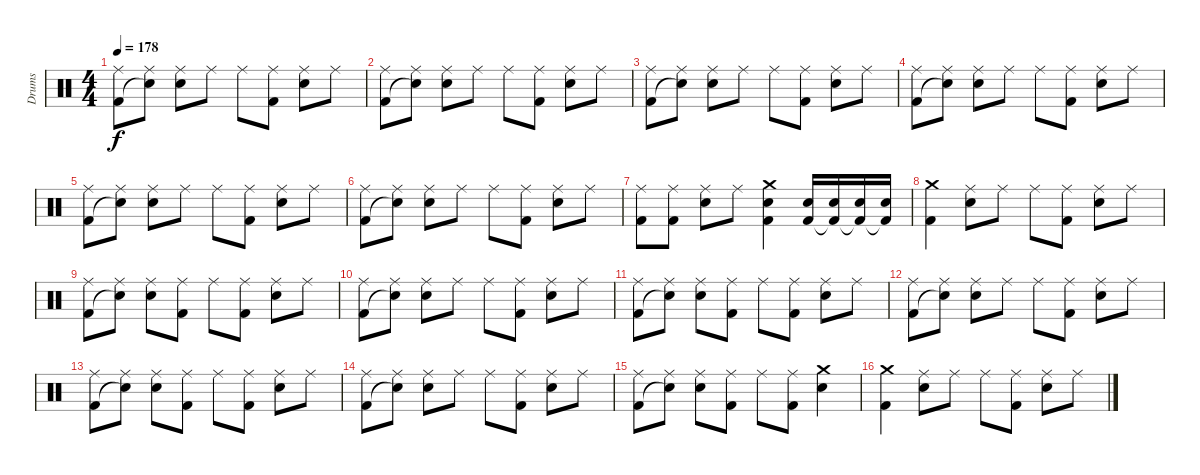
\track ("Drums" "Drums") {instrument percussion}
\staff {score}
\articulation defaults
\ts (4 4)
\tempo 178
\clef neutral
\ks c
("Ride (middle)" "Kick (hit) 2").8{dy f} ("Ride (middle)" "Snare (hit)"{t}).8 ("Ride (middle)" "Electric Snare (hit)").8 "Ride (middle)".8 "Ride (middle)".8 ("Ride (middle)" "Kick (hit) 2").8 ("Ride (middle)" "Electric Snare (hit)").8 "Ride (middle)".8 |
("Ride (middle)" "Kick (hit) 2").8 ("Ride (middle)" "Snare (hit)"{t}).8 ("Ride (middle)" "Electric Snare (hit)").8 "Ride (middle)".8 "Ride (middle)".8 ("Ride (middle)" "Kick (hit) 2").8 ("Ride (middle)" "Electric Snare (hit)").8 "Ride (middle)".8 |
("Ride (middle)" "Kick (hit) 2").8 ("Ride (middle)" "Snare (hit)"{t}).8 ("Ride (middle)" "Electric Snare (hit)").8 "Ride (middle)".8 "Ride (middle)".8 ("Ride (middle)" "Kick (hit) 2").8 ("Ride (middle)" "Electric Snare (hit)").8 "Ride (middle)".8 |
("Ride (middle)" "Kick (hit) 2").8 ("Ride (middle)" "Snare (hit)"{t}).8 ("Ride (middle)" "Electric Snare (hit)").8 "Ride (middle)".8 "Ride (middle)".8 ("Ride (middle)" "Kick (hit) 2").8 ("Ride (middle)" "Electric Snare (hit)").8 "Ride (middle)".8 |
("Ride (middle)" "Kick (hit) 2").8 ("Ride (middle)" "Snare (hit)"{t}).8 ("Ride (middle)" "Electric Snare (hit)").8 "Ride (middle)".8 "Ride (middle)".8 ("Ride (middle)" "Kick (hit) 2").8 ("Ride (middle)" "Electric Snare (hit)").8 "Ride (middle)".8 |
("Ride (middle)" "Kick (hit) 2").8 ("Ride (middle)" "Snare (hit)"{t}).8 ("Ride (middle)" "Electric Snare (hit)").8 "Ride (middle)".8 "Ride (middle)".8 ("Ride (middle)" "Kick (hit) 2").8 ("Ride (middle)" "Electric Snare (hit)").8 "Ride (middle)".8 |
("Ride (middle)" "Kick (hit) 2").8 ("Ride (middle)" "Kick (hit) 2").8 ("Ride (middle)" "Electric Snare (hit)").8 "Ride (middle)".8 ("Crash medium (hit)" "Electric Snare (hit)" "Kick (hit) 2").4 ("Electric Snare (hit)" "Kick (hit) 2").16 ("Electric Snare (hit)" "Kick (hit) 2"{t}).16 ("Electric Snare (hit)" "Kick (hit) 2"{t}).16 ("Electric Snare (hit)" "Kick (hit) 2"{t}).16 |
("Crash medium (hit)" "Kick (hit) 2").4 ("Ride (middle)" "Electric Snare (hit)").8 "Ride (middle)".8 "Ride (middle)".8 ("Ride (middle)" "Kick (hit) 2").8 ("Ride (middle)" "Electric Snare (hit)").8 "Ride (middle)".8 |
("Ride (middle)" "Kick (hit) 2").8 ("Ride (middle)" "Snare (hit)"{t}).8 ("Ride (middle)" "Electric Snare (hit)").8 ("Ride (middle)" "Kick (hit) 2").8 "Ride (middle)".8 ("Ride (middle)" "Kick (hit) 2").8 ("Ride (middle)" "Electric Snare (hit)").8 "Ride (middle)".8 |
("Ride (middle)" "Kick (hit) 2").8 ("Ride (middle)" "Snare (hit)"{t}).8 ("Ride (middle)" "Electric Snare (hit)").8 "Ride (middle)".8 "Ride (middle)".8 ("Ride (middle)" "Kick (hit) 2").8 ("Ride (middle)" "Electric Snare (hit)").8 "Ride (middle)".8 |
("Ride (middle)" "Kick (hit) 2").8 ("Ride (middle)" "Snare (hit)"{t}).8 ("Ride (middle)" "Electric Snare (hit)").8 ("Ride (middle)" "Kick (hit) 2").8 "Ride (middle)".8 ("Ride (middle)" "Kick (hit) 2").8 ("Ride (middle)" "Electric Snare (hit)").8 "Ride (middle)".8 |
("Ride (middle)" "Kick (hit) 2").8 ("Ride (middle)" "Snare (hit)"{t}).8 ("Ride (middle)" "Electric Snare (hit)").8 "Ride (middle)".8 "Ride (middle)".8 ("Ride (middle)" "Kick (hit) 2").8 ("Ride (middle)" "Electric Snare (hit)").8 "Ride (middle)".8 |
("Ride (middle)" "Kick (hit) 2").8 ("Ride (middle)" "Snare (hit)"{t}).8 ("Ride (middle)" "Electric Snare (hit)").8 ("Ride (middle)" "Kick (hit) 2").8 "Ride (middle)".8 ("Ride (middle)" "Kick (hit) 2").8 ("Ride (middle)" "Electric Snare (hit)").8 "Ride (middle)".8 |
("Ride (middle)" "Kick (hit) 2").8 ("Ride (middle)" "Snare (hit)"{t}).8 ("Ride (middle)" "Electric Snare (hit)").8 "Ride (middle)".8 "Ride (middle)".8 ("Ride (middle)" "Kick (hit) 2").8 ("Ride (middle)" "Electric Snare (hit)").8 "Ride (middle)".8 |
("Ride (middle)" "Kick (hit) 2").8 ("Ride (middle)" "Snare (hit)"{t}).8 ("Ride (middle)" "Electric Snare (hit)").8 ("Ride (middle)" "Kick (hit) 2").8 "Ride (middle)".8 ("Ride (middle)" "Kick (hit) 2").8 ("Crash medium (hit)" "Electric Snare (hit)").4 |
("Crash medium (hit)" "Kick (hit) 2").4 ("Ride (middle)" "Electric Snare (hit)").8 "Ride (middle)".8 "Ride (middle)".8 ("Ride (middle)" "Kick (hit) 2").8 ("Ride (middle)" "Electric Snare (hit)").8 "Ride (middle)".8
